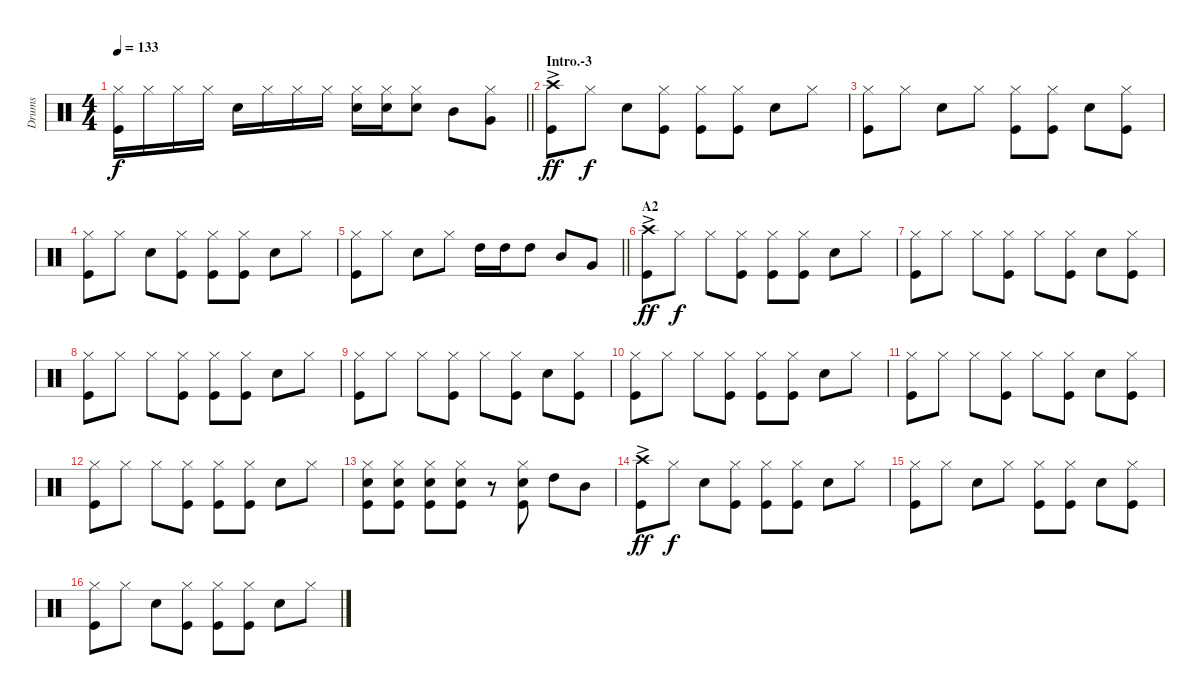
\track ("Drums" "Drums") {instrument percussion}
\staff {score}
\articulation defaults
\ts (4 4)
\tempo 133
\clef neutral
\barLineRight lightlight
\ks c
("Hi-Hat (closed)" "Kick (hit)").16{dy f} "Hi-Hat (closed)".16 "Hi-Hat (closed)".16 "Hi-Hat (closed)".16 "Snare (hit) 2".16 "Hi-Hat (closed)".16 "Hi-Hat (closed)".16 "Hi-Hat (closed)".16 ("Hi-Hat (closed)" "Snare (hit) 2").16 ("Hi-Hat (closed)" "Snare (hit) 2").16 ("Hi-Hat (closed)" "Snare (hit) 2").8 "Mid Tom (hit)".8 ("Hi-Hat (closed)" "Very Low Tom (hit)").8 |
\section ("" "Intro.-3")
("Crash high (hit)"{ac} "Kick (hit)").8{dy ff} "Hi-Hat (closed)".8{dy f} "Snare (hit) 2".8 ("Hi-Hat (closed)" "Kick (hit)").8 ("Hi-Hat (closed)" "Kick (hit)").8 ("Kick (hit)" "Hi-Hat (closed)").8 "Snare (hit) 2".8 "Hi-Hat (closed)".8 |
("Hi-Hat (closed)" "Kick (hit)").8 "Hi-Hat (closed)".8 "Snare (hit) 2".8 "Hi-Hat (closed)".8 ("Hi-Hat (closed)" "Kick (hit)").8 ("Kick (hit)" "Hi-Hat (closed)").8 "Snare (hit) 2".8 ("Hi-Hat (closed)" "Kick (hit)").8 |
("Hi-Hat (closed)" "Kick (hit)").8 "Hi-Hat (closed)".8 "Snare (hit) 2".8 ("Hi-Hat (closed)" "Kick (hit)").8 ("Hi-Hat (closed)" "Kick (hit)").8 ("Kick (hit)" "Hi-Hat (closed)").8 "Snare (hit) 2".8 "Hi-Hat (closed)".8 |
\barLineRight lightlight
("Kick (hit)" "Hi-Hat (closed)").8 "Hi-Hat (closed)".8 "Snare (hit) 2".8 "Hi-Hat (closed)".8 "High Tom (hit)".16 "High Tom (hit)".16 "High Tom (hit)".8 "Mid Tom (hit)".8 "Very Low Tom (hit)".8 |
\section ("" "A2")
("Crash high (hit)"{ac} "Kick (hit)").8{dy ff} "Hi-Hat (closed)".8{dy f} "Hi-Hat (closed)".8 ("Hi-Hat (closed)" "Kick (hit)").8 ("Hi-Hat (closed)" "Kick (hit)").8 ("Hi-Hat (closed)" "Kick (hit)").8 "Snare (hit) 2".8 "Hi-Hat (closed)".8 |
("Hi-Hat (closed)" "Kick (hit)").8 "Hi-Hat (closed)".8 "Hi-Hat (closed)".8 ("Hi-Hat (closed)" "Kick (hit)").8 "Hi-Hat (closed)".8 ("Hi-Hat (closed)" "Kick (hit)").8 "Snare (hit) 2".8 ("Hi-Hat (closed)" "Kick (hit)").8 |
("Kick (hit)" "Hi-Hat (closed)").8 "Hi-Hat (closed)".8 "Hi-Hat (closed)".8 ("Hi-Hat (closed)" "Kick (hit)").8 ("Hi-Hat (closed)" "Kick (hit)").8 ("Kick (hit)" "Hi-Hat (closed)").8 "Snare (hit) 2".8 "Hi-Hat (closed)".8 |
("Hi-Hat (closed)" "Kick (hit)").8 "Hi-Hat (closed)".8 "Hi-Hat (closed)".8 ("Hi-Hat (closed)" "Kick (hit)").8 "Hi-Hat (closed)".8 ("Hi-Hat (closed)" "Kick (hit)").8 "Snare (hit) 2".8 ("Hi-Hat (closed)" "Kick (hit)").8 |
("Kick (hit)" "Hi-Hat (closed)").8 "Hi-Hat (closed)".8 "Hi-Hat (closed)".8 ("Hi-Hat (closed)" "Kick (hit)").8 ("Hi-Hat (closed)" "Kick (hit)").8 ("Kick (hit)" "Hi-Hat (closed)").8 "Snare (hit) 2".8 "Hi-Hat (closed)".8 |
("Hi-Hat (closed)" "Kick (hit)").8 "Hi-Hat (closed)".8 "Hi-Hat (closed)".8 ("Hi-Hat (closed)" "Kick (hit)").8 "Hi-Hat (closed)".8 ("Hi-Hat (closed)" "Kick (hit)").8 "Snare (hit) 2".8 ("Hi-Hat (closed)" "Kick (hit)").8 |
("Hi-Hat (closed)" "Kick (hit)").8 "Hi-Hat (closed)".8 "Hi-Hat (closed)".8 ("Hi-Hat (closed)" "Kick (hit)").8 ("Hi-Hat (closed)" "Kick (hit)").8 ("Hi-Hat (closed)" "Kick (hit)").8 "Snare (hit) 2".8 "Hi-Hat (closed)".8 |
("Hi-Hat (closed)" "Kick (hit)" "Snare (hit) 2").8 ("Hi-Hat (closed)" "Kick (hit)" "Snare (hit) 2").8 ("Hi-Hat (closed)" "Kick (hit)" "Snare (hit) 2").8 ("Hi-Hat (closed)" "Kick (hit)" "Snare (hit) 2").8 r.8 ("Hi-Hat (closed)" "Kick (hit)" "Snare (hit) 2").8 "High Tom (hit)".8 "Mid Tom (hit)".8 |
("Crash high (hit)"{ac} "Kick (hit)").8{dy ff} "Hi-Hat (closed)".8{dy f} "Snare (hit) 2".8 ("Hi-Hat (closed)" "Kick (hit)").8 ("Hi-Hat (closed)" "Kick (hit)").8 ("Hi-Hat (closed)" "Kick (hit)").8 "Snare (hit) 2".8 "Hi-Hat (closed)".8 |
("Hi-Hat (closed)" "Kick (hit)").8 "Hi-Hat (closed)".8 "Snare (hit) 2".8 "Hi-Hat (closed)".8 ("Hi-Hat (closed)" "Kick (hit)").8 ("Hi-Hat (closed)" "Kick (hit)").8 "Snare (hit) 2".8 ("Hi-Hat (closed)" "Kick (hit)").8 |
("Hi-Hat (closed)" "Kick (hit)").8 "Hi-Hat (closed)".8 "Snare (hit) 2".8 ("Hi-Hat (closed)" "Kick (hit)").8 ("Kick (hit)" "Hi-Hat (closed)").8 ("Hi-Hat (closed)" "Kick (hit)").8 "Snare (hit) 2".8 "Hi-Hat (closed)".8
